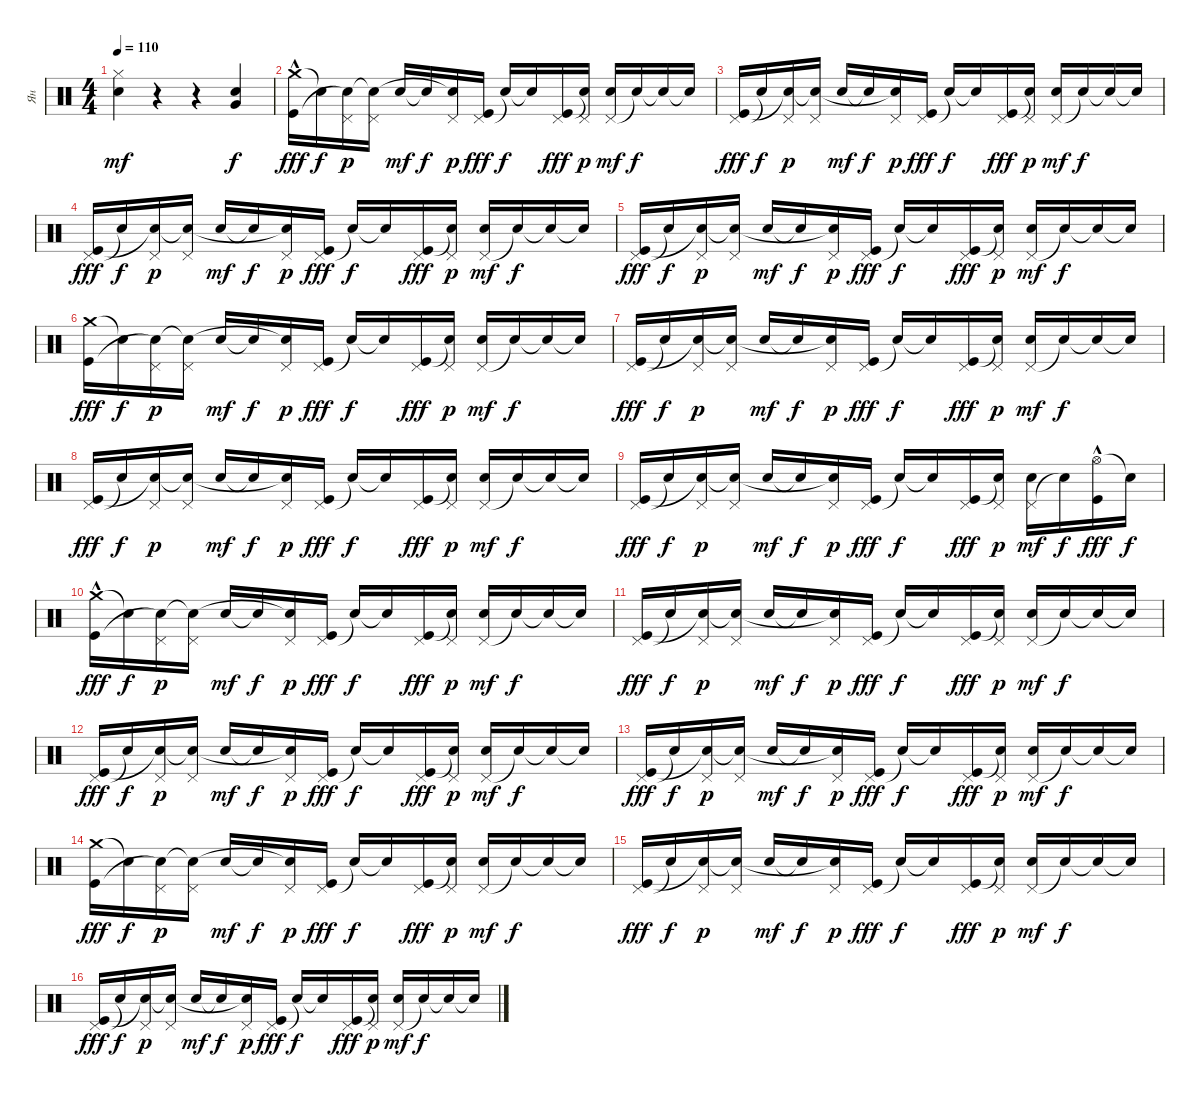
\track ("Ян " "Ян ") {instrument percussion}
\staff
\articulation defaults
\ts (4 4)
\tempo 110
\clef neutral
\ks c
("Hi-Hat (closed)" "Snare (hit) 2").4{dy mf} r.4 r.4 ("Very Low Tom (hit)" "Snare (hit) 2").4{dy f} |
("Crash medium (hit)" "Kick (hit)"{hac}).16{dy fff} "Snare (hit)"{t}.16{dy f} ("Pedal Hi-Hat (hit)" "Snare (hit)"{t}).16{dy p} ("Pedal Hi-Hat (hit)" "Snare (hit)"{t}).16 "Snare (hit) 2".16{dy mf} "Snare (hit)"{t}.16{dy f} ("Pedal Hi-Hat (hit)" "Snare (hit)"{t}).16{dy p} ("Pedal Hi-Hat (hit)" "Kick (hit)").16{dy fff} "Snare (hit)"{t}.16{dy f} "Snare (hit)"{t}.16 ("Pedal Hi-Hat (hit)" "Kick (hit)").16{dy fff} ("Pedal Hi-Hat (hit)" "Snare (hit)"{t}).16{dy p} ("Pedal Hi-Hat (hit)" "Snare (hit) 2").16{dy mf} "Snare (hit)"{t}.16{dy f} "Snare (hit)"{t}.16 "Snare (hit)"{t}.16 |
("Pedal Hi-Hat (hit)" "Kick (hit)").16{dy fff} "Snare (hit)"{t}.16{dy f} ("Pedal Hi-Hat (hit)" "Snare (hit)"{t}).16{dy p} ("Pedal Hi-Hat (hit)" "Snare (hit)"{t}).16 "Snare (hit) 2".16{dy mf} "Snare (hit)"{t}.16{dy f} ("Pedal Hi-Hat (hit)" "Snare (hit)"{t}).16{dy p} ("Pedal Hi-Hat (hit)" "Kick (hit)").16{dy fff} "Snare (hit)"{t}.16{dy f} "Snare (hit)"{t}.16 ("Pedal Hi-Hat (hit)" "Kick (hit)").16{dy fff} ("Pedal Hi-Hat (hit)" "Snare (hit)"{t}).16{dy p} ("Pedal Hi-Hat (hit)" "Snare (hit) 2").16{dy mf} "Snare (hit)"{t}.16{dy f} "Snare (hit)"{t}.16 "Snare (hit)"{t}.16 |
("Pedal Hi-Hat (hit)" "Kick (hit)").16{dy fff} "Snare (hit)"{t}.16{dy f} ("Pedal Hi-Hat (hit)" "Snare (hit)"{t}).16{dy p} ("Pedal Hi-Hat (hit)" "Snare (hit)"{t}).16 "Snare (hit) 2".16{dy mf} "Snare (hit)"{t}.16{dy f} ("Pedal Hi-Hat (hit)" "Snare (hit)"{t}).16{dy p} ("Pedal Hi-Hat (hit)" "Kick (hit)").16{dy fff} "Snare (hit)"{t}.16{dy f} "Snare (hit)"{t}.16 ("Pedal Hi-Hat (hit)" "Kick (hit)").16{dy fff} ("Pedal Hi-Hat (hit)" "Snare (hit)"{t}).16{dy p} ("Pedal Hi-Hat (hit)" "Snare (hit) 2").16{dy mf} "Snare (hit)"{t}.16{dy f} "Snare (hit)"{t}.16 "Snare (hit)"{t}.16 |
("Pedal Hi-Hat (hit)" "Kick (hit)").16{dy fff} "Snare (hit)"{t}.16{dy f} ("Pedal Hi-Hat (hit)" "Snare (hit)"{t}).16{dy p} ("Pedal Hi-Hat (hit)" "Snare (hit)"{t}).16 "Snare (hit) 2".16{dy mf} "Snare (hit)"{t}.16{dy f} ("Pedal Hi-Hat (hit)" "Snare (hit)"{t}).16{dy p} ("Pedal Hi-Hat (hit)" "Kick (hit)").16{dy fff} "Snare (hit)"{t}.16{dy f} "Snare (hit)"{t}.16 ("Pedal Hi-Hat (hit)" "Kick (hit)").16{dy fff} ("Pedal Hi-Hat (hit)" "Snare (hit)"{t}).16{dy p} ("Pedal Hi-Hat (hit)" "Snare (hit) 2").16{dy mf} "Snare (hit)"{t}.16{dy f} "Snare (hit)"{t}.16 "Snare (hit)"{t}.16 |
("Crash medium (hit)" "Kick (hit)").16{dy fff} "Snare (hit)"{t}.16{dy f} ("Pedal Hi-Hat (hit)" "Snare (hit)"{t}).16{dy p} ("Pedal Hi-Hat (hit)" "Snare (hit)"{t}).16 "Snare (hit) 2".16{dy mf} "Snare (hit)"{t}.16{dy f} ("Pedal Hi-Hat (hit)" "Snare (hit)"{t}).16{dy p} ("Pedal Hi-Hat (hit)" "Kick (hit)").16{dy fff} "Snare (hit)"{t}.16{dy f} "Snare (hit)"{t}.16 ("Pedal Hi-Hat (hit)" "Kick (hit)").16{dy fff} ("Pedal Hi-Hat (hit)" "Snare (hit)"{t}).16{dy p} ("Pedal Hi-Hat (hit)" "Snare (hit) 2").16{dy mf} "Snare (hit)"{t}.16{dy f} "Snare (hit)"{t}.16 "Snare (hit)"{t}.16 |
("Pedal Hi-Hat (hit)" "Kick (hit)").16{dy fff} "Snare (hit)"{t}.16{dy f} ("Pedal Hi-Hat (hit)" "Snare (hit)"{t}).16{dy p} ("Pedal Hi-Hat (hit)" "Snare (hit)"{t}).16 "Snare (hit) 2".16{dy mf} "Snare (hit)"{t}.16{dy f} ("Pedal Hi-Hat (hit)" "Snare (hit)"{t}).16{dy p} ("Pedal Hi-Hat (hit)" "Kick (hit)").16{dy fff} "Snare (hit)"{t}.16{dy f} "Snare (hit)"{t}.16 ("Pedal Hi-Hat (hit)" "Kick (hit)").16{dy fff} ("Pedal Hi-Hat (hit)" "Snare (hit)"{t}).16{dy p} ("Pedal Hi-Hat (hit)" "Snare (hit) 2").16{dy mf} "Snare (hit)"{t}.16{dy f} "Snare (hit)"{t}.16 "Snare (hit)"{t}.16 |
("Pedal Hi-Hat (hit)" "Kick (hit)").16{dy fff} "Snare (hit)"{t}.16{dy f} ("Pedal Hi-Hat (hit)" "Snare (hit)"{t}).16{dy p} ("Pedal Hi-Hat (hit)" "Snare (hit)"{t}).16 "Snare (hit) 2".16{dy mf} "Snare (hit)"{t}.16{dy f} ("Pedal Hi-Hat (hit)" "Snare (hit)"{t}).16{dy p} ("Pedal Hi-Hat (hit)" "Kick (hit)").16{dy fff} "Snare (hit)"{t}.16{dy f} "Snare (hit)"{t}.16 ("Pedal Hi-Hat (hit)" "Kick (hit)").16{dy fff} ("Pedal Hi-Hat (hit)" "Snare (hit)"{t}).16{dy p} ("Pedal Hi-Hat (hit)" "Snare (hit) 2").16{dy mf} "Snare (hit)"{t}.16{dy f} "Snare (hit)"{t}.16 "Snare (hit)"{t}.16 |
("Pedal Hi-Hat (hit)" "Kick (hit)").16{dy fff} "Snare (hit)"{t}.16{dy f} ("Pedal Hi-Hat (hit)" "Snare (hit)"{t}).16{dy p} ("Pedal Hi-Hat (hit)" "Snare (hit)"{t}).16 "Snare (hit) 2".16{dy mf} "Snare (hit)"{t}.16{dy f} ("Pedal Hi-Hat (hit)" "Snare (hit)"{t}).16{dy p} ("Pedal Hi-Hat (hit)" "Kick (hit)").16{dy fff} "Snare (hit)"{t}.16{dy f} "Snare (hit)"{t}.16 ("Pedal Hi-Hat (hit)" "Kick (hit)").16{dy fff} ("Pedal Hi-Hat (hit)" "Snare (hit)"{t}).16{dy p} ("Pedal Hi-Hat (hit)" "Snare (hit) 2").16{dy mf} "Snare (hit)"{t}.16{dy f} ("Hi-Hat (open)" "Kick (hit)"{hac}).16{dy fff} "Snare (hit)"{t}.16{dy f} |
("Crash medium (hit)" "Kick (hit)"{hac}).16{dy fff} "Snare (hit)"{t}.16{dy f} ("Pedal Hi-Hat (hit)" "Snare (hit)"{t}).16{dy p} ("Pedal Hi-Hat (hit)" "Snare (hit)"{t}).16 "Snare (hit) 2".16{dy mf} "Snare (hit)"{t}.16{dy f} ("Pedal Hi-Hat (hit)" "Snare (hit)"{t}).16{dy p} ("Pedal Hi-Hat (hit)" "Kick (hit)").16{dy fff} "Snare (hit)"{t}.16{dy f} "Snare (hit)"{t}.16 ("Pedal Hi-Hat (hit)" "Kick (hit)").16{dy fff} ("Pedal Hi-Hat (hit)" "Snare (hit)"{t}).16{dy p} ("Pedal Hi-Hat (hit)" "Snare (hit) 2").16{dy mf} "Snare (hit)"{t}.16{dy f} "Snare (hit)"{t}.16 "Snare (hit)"{t}.16 |
("Pedal Hi-Hat (hit)" "Kick (hit)").16{dy fff} "Snare (hit)"{t}.16{dy f} ("Pedal Hi-Hat (hit)" "Snare (hit)"{t}).16{dy p} ("Pedal Hi-Hat (hit)" "Snare (hit)"{t}).16 "Snare (hit) 2".16{dy mf} "Snare (hit)"{t}.16{dy f} ("Pedal Hi-Hat (hit)" "Snare (hit)"{t}).16{dy p} ("Pedal Hi-Hat (hit)" "Kick (hit)").16{dy fff} "Snare (hit)"{t}.16{dy f} "Snare (hit)"{t}.16 ("Pedal Hi-Hat (hit)" "Kick (hit)").16{dy fff} ("Pedal Hi-Hat (hit)" "Snare (hit)"{t}).16{dy p} ("Pedal Hi-Hat (hit)" "Snare (hit) 2").16{dy mf} "Snare (hit)"{t}.16{dy f} "Snare (hit)"{t}.16 "Snare (hit)"{t}.16 |
("Pedal Hi-Hat (hit)" "Kick (hit)").16{dy fff} "Snare (hit)"{t}.16{dy f} ("Pedal Hi-Hat (hit)" "Snare (hit)"{t}).16{dy p} ("Pedal Hi-Hat (hit)" "Snare (hit)"{t}).16 "Snare (hit) 2".16{dy mf} "Snare (hit)"{t}.16{dy f} ("Pedal Hi-Hat (hit)" "Snare (hit)"{t}).16{dy p} ("Pedal Hi-Hat (hit)" "Kick (hit)").16{dy fff} "Snare (hit)"{t}.16{dy f} "Snare (hit)"{t}.16 ("Pedal Hi-Hat (hit)" "Kick (hit)").16{dy fff} ("Pedal Hi-Hat (hit)" "Snare (hit)"{t}).16{dy p} ("Pedal Hi-Hat (hit)" "Snare (hit) 2").16{dy mf} "Snare (hit)"{t}.16{dy f} "Snare (hit)"{t}.16 "Snare (hit)"{t}.16 |
("Pedal Hi-Hat (hit)" "Kick (hit)").16{dy fff} "Snare (hit)"{t}.16{dy f} ("Pedal Hi-Hat (hit)" "Snare (hit)"{t}).16{dy p} ("Pedal Hi-Hat (hit)" "Snare (hit)"{t}).16 "Snare (hit) 2".16{dy mf} "Snare (hit)"{t}.16{dy f} ("Pedal Hi-Hat (hit)" "Snare (hit)"{t}).16{dy p} ("Pedal Hi-Hat (hit)" "Kick (hit)").16{dy fff} "Snare (hit)"{t}.16{dy f} "Snare (hit)"{t}.16 ("Pedal Hi-Hat (hit)" "Kick (hit)").16{dy fff} ("Pedal Hi-Hat (hit)" "Snare (hit)"{t}).16{dy p} ("Pedal Hi-Hat (hit)" "Snare (hit) 2").16{dy mf} "Snare (hit)"{t}.16{dy f} "Snare (hit)"{t}.16 "Snare (hit)"{t}.16 |
("Crash medium (hit)" "Kick (hit)").16{dy fff} "Snare (hit)"{t}.16{dy f} ("Pedal Hi-Hat (hit)" "Snare (hit)"{t}).16{dy p} ("Pedal Hi-Hat (hit)" "Snare (hit)"{t}).16 "Snare (hit) 2".16{dy mf} "Snare (hit)"{t}.16{dy f} ("Pedal Hi-Hat (hit)" "Snare (hit)"{t}).16{dy p} ("Pedal Hi-Hat (hit)" "Kick (hit)").16{dy fff} "Snare (hit)"{t}.16{dy f} "Snare (hit)"{t}.16 ("Pedal Hi-Hat (hit)" "Kick (hit)").16{dy fff} ("Pedal Hi-Hat (hit)" "Snare (hit)"{t}).16{dy p} ("Pedal Hi-Hat (hit)" "Snare (hit) 2").16{dy mf} "Snare (hit)"{t}.16{dy f} "Snare (hit)"{t}.16 "Snare (hit)"{t}.16 |
("Pedal Hi-Hat (hit)" "Kick (hit)").16{dy fff} "Snare (hit)"{t}.16{dy f} ("Pedal Hi-Hat (hit)" "Snare (hit)"{t}).16{dy p} ("Pedal Hi-Hat (hit)" "Snare (hit)"{t}).16 "Snare (hit) 2".16{dy mf} "Snare (hit)"{t}.16{dy f} ("Pedal Hi-Hat (hit)" "Snare (hit)"{t}).16{dy p} ("Pedal Hi-Hat (hit)" "Kick (hit)").16{dy fff} "Snare (hit)"{t}.16{dy f} "Snare (hit)"{t}.16 ("Pedal Hi-Hat (hit)" "Kick (hit)").16{dy fff} ("Pedal Hi-Hat (hit)" "Snare (hit)"{t}).16{dy p} ("Pedal Hi-Hat (hit)" "Snare (hit) 2").16{dy mf} "Snare (hit)"{t}.16{dy f} "Snare (hit)"{t}.16 "Snare (hit)"{t}.16 |
("Pedal Hi-Hat (hit)" "Kick (hit)").16{dy fff} "Snare (hit)"{t}.16{dy f} ("Pedal Hi-Hat (hit)" "Snare (hit)"{t}).16{dy p} ("Pedal Hi-Hat (hit)" "Snare (hit)"{t}).16 "Snare (hit) 2".16{dy mf} "Snare (hit)"{t}.16{dy f} ("Pedal Hi-Hat (hit)" "Snare (hit)"{t}).16{dy p} ("Pedal Hi-Hat (hit)" "Kick (hit)").16{dy fff} "Snare (hit)"{t}.16{dy f} "Snare (hit)"{t}.16 ("Pedal Hi-Hat (hit)" "Kick (hit)").16{dy fff} ("Pedal Hi-Hat (hit)" "Snare (hit)"{t}).16{dy p} ("Pedal Hi-Hat (hit)" "Snare (hit) 2").16{dy mf} "Snare (hit)"{t}.16{dy f} "Snare (hit)"{t}.16 "Snare (hit)"{t}.16
